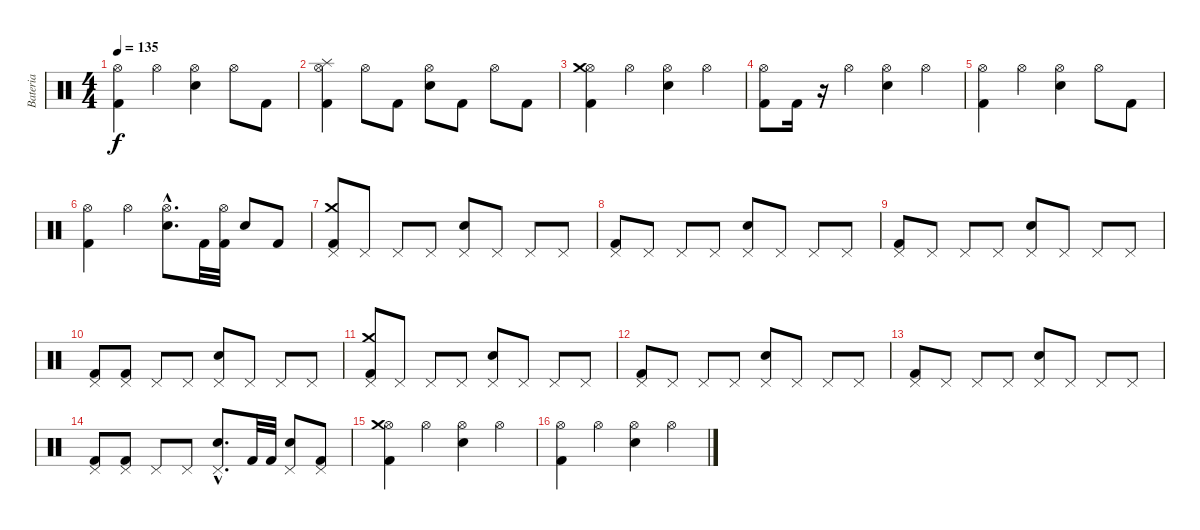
\track ("Bateria" "Bateria") {instrument percussion}
\staff {score}
\articulation defaults
\ts (4 4)
\tempo 135
\clef neutral
\ks c
("Kick (hit) 2" "Hi-Hat (open)").4{dy f} "Hi-Hat (open)".4 ("Electric Snare (hit)" "Hi-Hat (open)").4 "Hi-Hat (open)".8 "Kick (hit) 2".8 |
("Kick (hit) 2" "Hi-Hat (open)" "Splash (hit)").4 "Hi-Hat (open)".8 "Kick (hit) 2".8 ("Electric Snare (hit)" "Hi-Hat (open)").8 "Kick (hit) 2".8 "Hi-Hat (open)".8 "Kick (hit) 2".8 |
("Kick (hit) 2" "Hi-Hat (open)" "Crash medium (hit)").4 "Hi-Hat (open)".4 ("Electric Snare (hit)" "Hi-Hat (open)").4 "Hi-Hat (open)".4 |
("Kick (hit) 2" "Hi-Hat (open)").8 "Kick (hit) 2".16 r.16 "Hi-Hat (open)".4 ("Electric Snare (hit)" "Hi-Hat (open)").4 "Hi-Hat (open)".4 |
("Kick (hit) 2" "Hi-Hat (open)").4 "Hi-Hat (open)".4 ("Electric Snare (hit)" "Hi-Hat (open)").4 "Hi-Hat (open)".8 "Kick (hit) 2".8 |
("Kick (hit) 2" "Hi-Hat (open)").4 "Hi-Hat (open)".4 ("Electric Snare (hit)"{hac} "Hi-Hat (open)"{hac}).8{d} "Kick (hit) 2".32 ("Kick (hit) 2" "Hi-Hat (open)").32 "Electric Snare (hit)".8 "Kick (hit) 2".8 |
("Kick (hit) 2" "Pedal Hi-Hat (hit)" "Crash medium (hit)").8 "Pedal Hi-Hat (hit)".8 "Pedal Hi-Hat (hit)".8 "Pedal Hi-Hat (hit)".8 ("Electric Snare (hit)" "Pedal Hi-Hat (hit)").8 "Pedal Hi-Hat (hit)".8 "Pedal Hi-Hat (hit)".8 "Pedal Hi-Hat (hit)".8 |
("Kick (hit) 2" "Pedal Hi-Hat (hit)").8 "Pedal Hi-Hat (hit)".8 "Pedal Hi-Hat (hit)".8 "Pedal Hi-Hat (hit)".8 ("Electric Snare (hit)" "Pedal Hi-Hat (hit)").8 "Pedal Hi-Hat (hit)".8 "Pedal Hi-Hat (hit)".8 "Pedal Hi-Hat (hit)".8 |
("Kick (hit) 2" "Pedal Hi-Hat (hit)").8 "Pedal Hi-Hat (hit)".8 "Pedal Hi-Hat (hit)".8 "Pedal Hi-Hat (hit)".8 ("Electric Snare (hit)" "Pedal Hi-Hat (hit)").8 "Pedal Hi-Hat (hit)".8 "Pedal Hi-Hat (hit)".8 "Pedal Hi-Hat (hit)".8 |
("Kick (hit) 2" "Pedal Hi-Hat (hit)").8 ("Kick (hit) 2" "Pedal Hi-Hat (hit)").8 "Pedal Hi-Hat (hit)".8 "Pedal Hi-Hat (hit)".8 ("Electric Snare (hit)" "Pedal Hi-Hat (hit)").8 "Pedal Hi-Hat (hit)".8 "Pedal Hi-Hat (hit)".8 "Pedal Hi-Hat (hit)".8 |
("Kick (hit) 2" "Pedal Hi-Hat (hit)" "Crash medium (hit)").8 "Pedal Hi-Hat (hit)".8 "Pedal Hi-Hat (hit)".8 "Pedal Hi-Hat (hit)".8 ("Electric Snare (hit)" "Pedal Hi-Hat (hit)").8 "Pedal Hi-Hat (hit)".8 "Pedal Hi-Hat (hit)".8 "Pedal Hi-Hat (hit)".8 |
("Kick (hit) 2" "Pedal Hi-Hat (hit)").8 "Pedal Hi-Hat (hit)".8 "Pedal Hi-Hat (hit)".8 "Pedal Hi-Hat (hit)".8 ("Electric Snare (hit)" "Pedal Hi-Hat (hit)").8 "Pedal Hi-Hat (hit)".8 "Pedal Hi-Hat (hit)".8 "Pedal Hi-Hat (hit)".8 |
("Kick (hit) 2" "Pedal Hi-Hat (hit)").8 "Pedal Hi-Hat (hit)".8 "Pedal Hi-Hat (hit)".8 "Pedal Hi-Hat (hit)".8 ("Electric Snare (hit)" "Pedal Hi-Hat (hit)").8 "Pedal Hi-Hat (hit)".8 "Pedal Hi-Hat (hit)".8 "Pedal Hi-Hat (hit)".8 |
("Kick (hit) 2" "Pedal Hi-Hat (hit)").8 ("Kick (hit) 2" "Pedal Hi-Hat (hit)").8 "Pedal Hi-Hat (hit)".8 "Pedal Hi-Hat (hit)".8 ("Electric Snare (hit)"{hac} "Pedal Hi-Hat (hit)"{hac}).8{d} "Kick (hit) 2".32 "Kick (hit) 2".32 ("Electric Snare (hit)" "Pedal Hi-Hat (hit)").8 ("Kick (hit) 2" "Pedal Hi-Hat (hit)").8 |
("Kick (hit) 2" "Hi-Hat (open)" "Crash medium (hit)").4 "Hi-Hat (open)".4 ("Electric Snare (hit)" "Hi-Hat (open)").4 "Hi-Hat (open)".4 |
("Kick (hit) 2" "Hi-Hat (open)").4 "Hi-Hat (open)".4 ("Electric Snare (hit)" "Hi-Hat (open)").4 "Hi-Hat (open)".4
